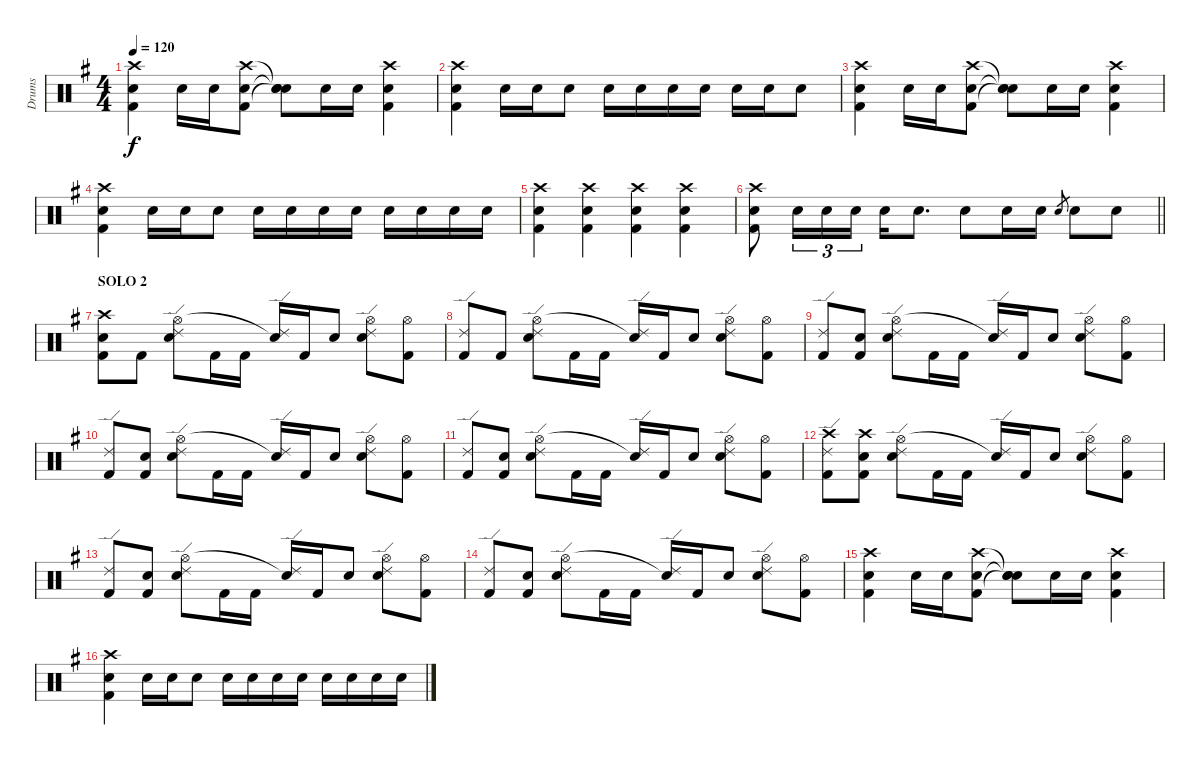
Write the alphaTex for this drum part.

\track ("Drums" "Drums") {instrument percussion}
\staff {score}
\articulation defaults
\ts (4 4)
\tempo 120
\clef neutral
\ks eminor
("Crash high (hit)" "Electric Snare (hit)" "Kick (hit) 2").4{dy f} "Electric Snare (hit)".16 "Electric Snare (hit)".16 ("Crash high (hit)" "Electric Snare (hit)" "Kick (hit) 2").8 ("Snare (hit)"{t} "Snare (hit)"{t} "Snare (hit)"{t}).8 "Electric Snare (hit)".16 "Electric Snare (hit)".16 ("Crash high (hit)" "Electric Snare (hit)" "Kick (hit) 2").4 |
("Crash high (hit)" "Electric Snare (hit)" "Kick (hit) 2").4 "Electric Snare (hit)".16 "Electric Snare (hit)".16 "Electric Snare (hit)".8 "Electric Snare (hit)".16 "Electric Snare (hit)".16 "Electric Snare (hit)".16 "Electric Snare (hit)".16 "Electric Snare (hit)".16 "Electric Snare (hit)".16 "Electric Snare (hit)".8 |
("Crash high (hit)" "Electric Snare (hit)" "Kick (hit) 2").4 "Electric Snare (hit)".16 "Electric Snare (hit)".16 ("Crash high (hit)" "Electric Snare (hit)" "Kick (hit) 2").8 ("Snare (hit)"{t} "Snare (hit)"{t} "Snare (hit)"{t}).8 "Electric Snare (hit)".16 "Electric Snare (hit)".16 ("Crash high (hit)" "Electric Snare (hit)" "Kick (hit) 2").4 |
("Crash high (hit)" "Electric Snare (hit)" "Kick (hit) 2").4 "Electric Snare (hit)".16 "Electric Snare (hit)".16 "Electric Snare (hit)".8 "Electric Snare (hit)".16 "Electric Snare (hit)".16 "Electric Snare (hit)".16 "Electric Snare (hit)".16 "Electric Snare (hit)".16 "Electric Snare (hit)".16 "Electric Snare (hit)".16 "Electric Snare (hit)".16 |
("Crash high (hit)" "Electric Snare (hit)" "Kick (hit) 2").4 ("Crash high (hit)" "Electric Snare (hit)" "Kick (hit) 2").4 ("Crash high (hit)" "Electric Snare (hit)" "Kick (hit) 2").4 ("Crash high (hit)" "Electric Snare (hit)" "Kick (hit) 2").4 |
\barLineRight lightlight
("Crash high (hit)" "Electric Snare (hit)" "Kick (hit) 2").8 "Electric Snare (hit)".16{tu (3 2)} "Electric Snare (hit)".16{tu (3 2)} "Electric Snare (hit)".16{tu (3 2)} "Electric Snare (hit)".16 "Electric Snare (hit)".8{d} "Electric Snare (hit)".8 "Electric Snare (hit)".16 "Electric Snare (hit)".16 "Electric Snare (hit)".8{gr} "Electric Snare (hit)".8 "Electric Snare (hit)".8 |
\section ("" "SOLO 2")
("Crash high (hit)" "Electric Snare (hit)" "Kick (hit) 2").8 "Kick (hit) 2".8 ("Ride (edge) 2" "Hi-Hat (open)" "Electric Snare (hit)").8 "Kick (hit) 2".16 "Kick (hit) 2".16 ("Ride (edge) 2" "Snare (hit)"{t}).16 "Kick (hit) 2".16 "Electric Snare (hit)".8 ("Ride (edge) 2" "Hi-Hat (open)" "Electric Snare (hit)").8 ("Hi-Hat (open)" "Kick (hit) 2").8 |
("Ride (edge) 2" "Kick (hit) 2").8 "Kick (hit) 2".8 ("Ride (edge) 2" "Hi-Hat (open)" "Electric Snare (hit)").8 "Kick (hit) 2".16 "Kick (hit) 2".16 ("Ride (edge) 2" "Snare (hit)"{t}).16 "Kick (hit) 2".16 "Electric Snare (hit)".8 ("Ride (edge) 2" "Hi-Hat (open)" "Electric Snare (hit)").8 ("Hi-Hat (open)" "Kick (hit) 2").8 |
("Ride (edge) 2" "Kick (hit) 2").8 ("Electric Snare (hit)" "Kick (hit) 2").8 ("Ride (edge) 2" "Hi-Hat (open)" "Electric Snare (hit)").8 "Kick (hit) 2".16 "Kick (hit) 2".16 ("Ride (edge) 2" "Snare (hit)"{t}).16 "Kick (hit) 2".16 "Electric Snare (hit)".8 ("Ride (edge) 2" "Hi-Hat (open)" "Electric Snare (hit)").8 ("Hi-Hat (open)" "Kick (hit) 2").8 |
("Ride (edge) 2" "Kick (hit) 2").8 ("Electric Snare (hit)" "Kick (hit) 2").8 ("Ride (edge) 2" "Hi-Hat (open)" "Electric Snare (hit)").8 "Kick (hit) 2".16 "Kick (hit) 2".16 ("Ride (edge) 2" "Snare (hit)"{t}).16 "Kick (hit) 2".16 "Electric Snare (hit)".8 ("Ride (edge) 2" "Hi-Hat (open)" "Electric Snare (hit)").8 ("Hi-Hat (open)" "Kick (hit) 2").8 |
("Ride (edge) 2" "Kick (hit) 2").8 ("Electric Snare (hit)" "Kick (hit) 2").8 ("Ride (edge) 2" "Hi-Hat (open)" "Electric Snare (hit)").8 "Kick (hit) 2".16 "Kick (hit) 2".16 ("Ride (edge) 2" "Snare (hit)"{t}).16 "Kick (hit) 2".16 "Electric Snare (hit)".8 ("Ride (edge) 2" "Hi-Hat (open)" "Electric Snare (hit)").8 ("Hi-Hat (open)" "Kick (hit) 2").8 |
("Crash high (hit)" "Ride (edge) 2" "Kick (hit) 2").8 ("Crash high (hit)" "Electric Snare (hit)" "Kick (hit) 2").8 ("Ride (edge) 2" "Hi-Hat (open)" "Electric Snare (hit)").8 "Kick (hit) 2".16 "Kick (hit) 2".16 ("Ride (edge) 2" "Snare (hit)"{t}).16 "Kick (hit) 2".16 "Electric Snare (hit)".8 ("Ride (edge) 2" "Hi-Hat (open)" "Electric Snare (hit)").8 ("Hi-Hat (open)" "Kick (hit) 2").8 |
("Ride (edge) 2" "Kick (hit) 2").8 ("Electric Snare (hit)" "Kick (hit) 2").8 ("Ride (edge) 2" "Hi-Hat (open)" "Electric Snare (hit)").8 "Kick (hit) 2".16 "Kick (hit) 2".16 ("Ride (edge) 2" "Snare (hit)"{t}).16 "Kick (hit) 2".16 "Electric Snare (hit)".8 ("Ride (edge) 2" "Hi-Hat (open)" "Electric Snare (hit)").8 ("Hi-Hat (open)" "Kick (hit) 2").8 |
("Ride (edge) 2" "Kick (hit) 2").8 ("Electric Snare (hit)" "Kick (hit) 2").8 ("Ride (edge) 2" "Hi-Hat (open)" "Electric Snare (hit)").8 "Kick (hit) 2".16 "Kick (hit) 2".16 ("Ride (edge) 2" "Snare (hit)"{t}).16 "Kick (hit) 2".16 "Electric Snare (hit)".8 ("Ride (edge) 2" "Hi-Hat (open)" "Electric Snare (hit)").8 ("Hi-Hat (open)" "Kick (hit) 2").8 |
("Crash high (hit)" "Electric Snare (hit)" "Kick (hit) 2").4 "Electric Snare (hit)".16 "Electric Snare (hit)".16 ("Crash high (hit)" "Electric Snare (hit)" "Kick (hit) 2").8 ("Snare (hit)"{t} "Snare (hit)"{t} "Snare (hit)"{t}).8 "Electric Snare (hit)".16 "Electric Snare (hit)".16 ("Crash high (hit)" "Electric Snare (hit)" "Kick (hit) 2").4 |
("Crash high (hit)" "Electric Snare (hit)" "Kick (hit) 2").4 "Electric Snare (hit)".16 "Electric Snare (hit)".16 "Electric Snare (hit)".8 "Electric Snare (hit)".16 "Electric Snare (hit)".16 "Electric Snare (hit)".16 "Electric Snare (hit)".16 "Electric Snare (hit)".16 "Electric Snare (hit)".16 "Electric Snare (hit)".16 "Electric Snare (hit)".16
